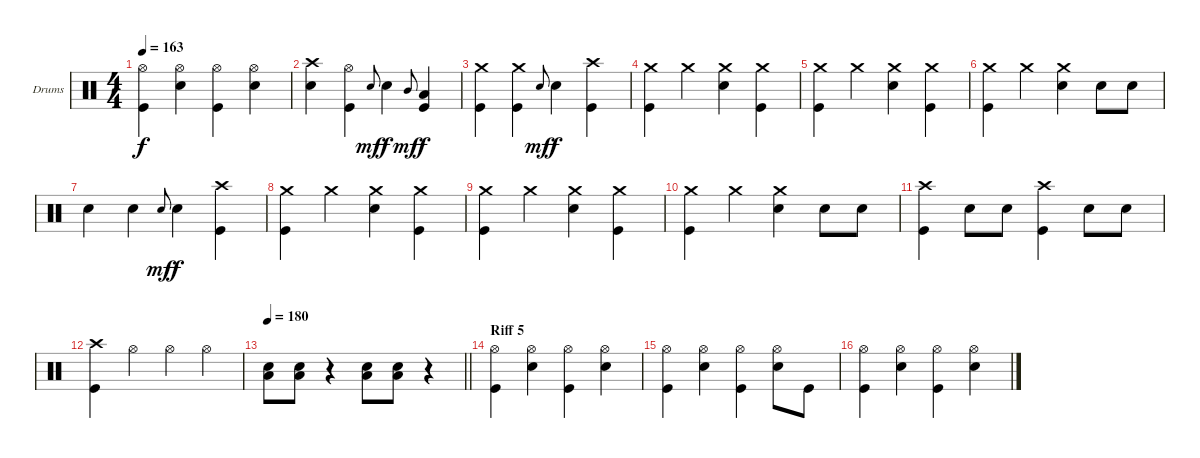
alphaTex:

\bracketExtendMode groupsimilarinstruments
\firstSystemTrackNameOrientation horizontal
\otherSystemsTrackNameOrientation horizontal
\track ("Drumkit" "Drums") {instrument percussion}
\staff {score}
\articulation defaults
\ts (4 4)
\tempo 163
\clef neutral
\ks c
("Hi-Hat (open)" "Kick (hit)").4{dy f} ("Hi-Hat (open)" "Snare (hit) 2").4 ("Hi-Hat (open)" "Kick (hit)").4 ("Hi-Hat (open)" "Snare (hit) 2").4 |
("Crash high (hit)" "Snare (hit) 2").4 ("Hi-Hat (open)" "Kick (hit)").4 "Snare (hit) 2".8{gr onbeat dy mf} "Snare (hit) 2".4{dy f} "Mid Tom (hit)".8{gr onbeat dy mf} ("Low Tom (hit)" "Kick (hit)").4{dy f} |
("Crash medium (hit)" "Kick (hit)").4 ("Crash medium (hit)" "Kick (hit)").4 "Snare (hit) 2".8{gr onbeat dy mf} "Snare (hit) 2".4{dy f} ("Crash high (hit)" "Kick (hit)").4 |
("Crash medium (hit)" "Kick (hit)").4 "Crash medium (hit)".4 ("Crash medium (hit)" "Snare (hit) 2").4 ("Crash medium (hit)" "Kick (hit)").4 |
("Crash medium (hit)" "Kick (hit)").4 "Crash medium (hit)".4 ("Crash medium (hit)" "Snare (hit) 2").4 ("Crash medium (hit)" "Kick (hit)").4 |
("Crash medium (hit)" "Kick (hit)").4 "Crash medium (hit)".4 ("Crash medium (hit)" "Snare (hit) 2").4 "Snare (hit) 2".8 "Snare (hit) 2".8 |
"Snare (hit) 2".4 "Snare (hit) 2".4 "Snare (hit) 2".8{gr onbeat dy mf} "Snare (hit) 2".4{dy f} ("Crash high (hit)" "Kick (hit)").4 |
("Crash medium (hit)" "Kick (hit)").4 "Crash medium (hit)".4 ("Crash medium (hit)" "Snare (hit) 2").4 ("Crash medium (hit)" "Kick (hit)").4 |
("Crash medium (hit)" "Kick (hit)").4 "Crash medium (hit)".4 ("Crash medium (hit)" "Snare (hit) 2").4 ("Crash medium (hit)" "Kick (hit)").4 |
("Crash medium (hit)" "Kick (hit)").4 "Crash medium (hit)".4 ("Crash medium (hit)" "Snare (hit) 2").4 "Snare (hit) 2".8 "Snare (hit) 2".8 |
("Crash high (hit)" "Kick (hit)").4 "Snare (hit) 2".8 "Snare (hit) 2".8 ("Crash high (hit)" "Kick (hit)").4 "Snare (hit) 2".8 "Snare (hit) 2".8 |
("Crash high (hit)" "Kick (hit)").4 "Hi-Hat (open)".4 "Hi-Hat (open)".4 "Hi-Hat (open)".4 |
\tempo 180
\barLineRight lightlight
("Snare (hit) 2" "Low Tom (hit)").8 ("Snare (hit) 2" "Low Tom (hit)").8 r.4 ("Snare (hit) 2" "Low Tom (hit)").8 ("Snare (hit) 2" "Low Tom (hit)").8 r.4 |
\section ("" "Riff 5")
("Hi-Hat (open)" "Kick (hit)").4 ("Hi-Hat (open)" "Snare (hit) 2").4 ("Hi-Hat (open)" "Kick (hit)").4 ("Hi-Hat (open)" "Snare (hit) 2").4 |
("Hi-Hat (open)" "Kick (hit)").4 ("Hi-Hat (open)" "Snare (hit) 2").4 ("Hi-Hat (open)" "Kick (hit)").4 ("Hi-Hat (open)" "Snare (hit) 2").8 "Kick (hit)".8 |
("Hi-Hat (open)" "Kick (hit)").4 ("Hi-Hat (open)" "Snare (hit) 2").4 ("Hi-Hat (open)" "Kick (hit)").4 ("Hi-Hat (open)" "Snare (hit) 2").4
